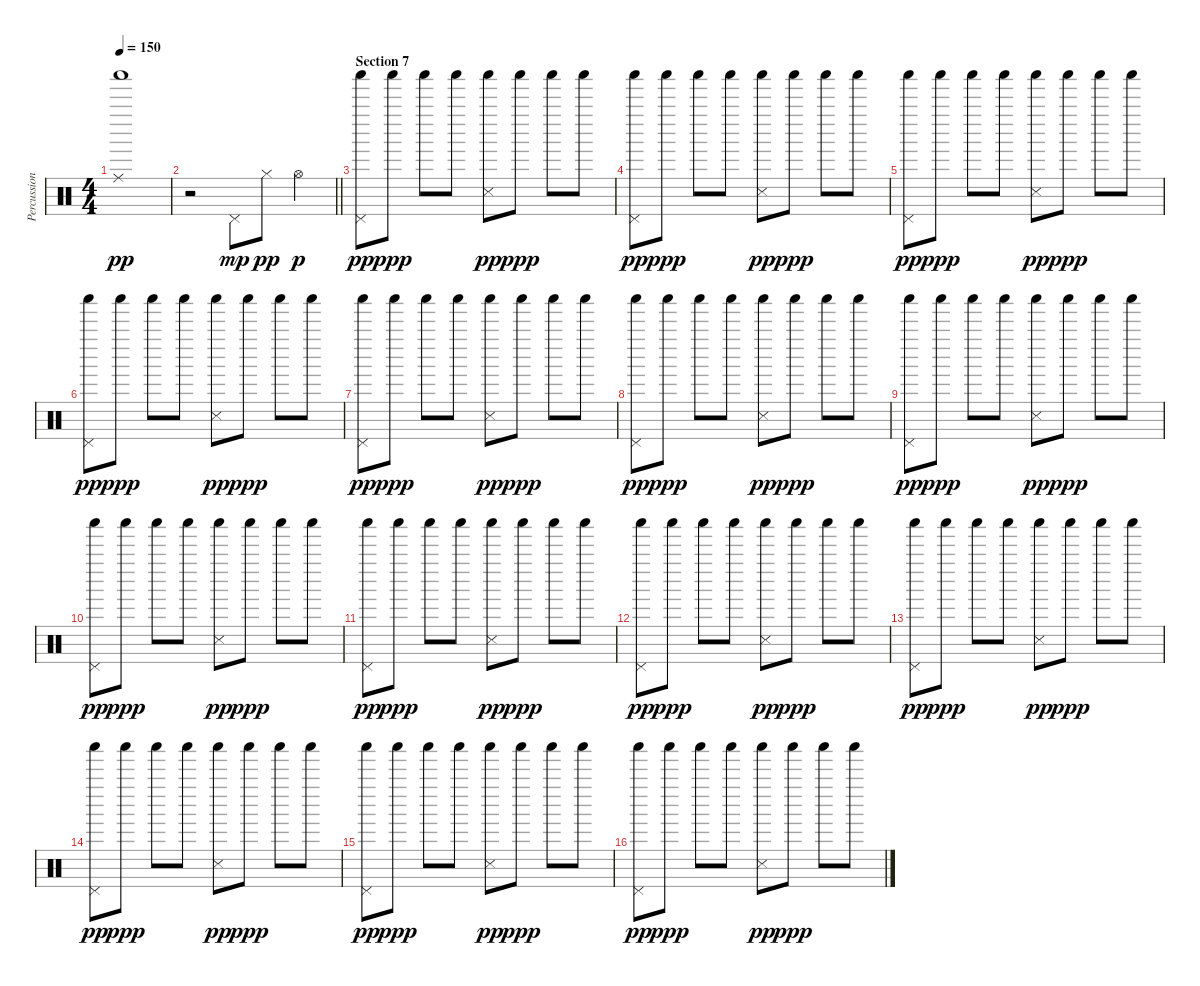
\track ("Percussion" "Percussion") {instrument percussion}
\staff {score}
\articulation defaults
\ts (4 4)
\tempo 150
\clef neutral
\ks c
("Ride (middle)" "Shaker (hit)").1{dy pp} |
\barLineRight lightlight
r.2 "Pedal Hi-Hat (hit)".8{dy mp} "Hi-Hat (closed)".8{dy pp} "Hi-Hat (open)".4{dy p} |
\section ("" "Section 7")
("Pedal Hi-Hat (hit)" "Shaker (hit)").8{dy pp} "Shaker (hit)".8{dy ppp} "Shaker (hit)".8 "Shaker (hit)".8 ("Snare (side stick) 3" "Shaker (hit)").8{dy pp} "Shaker (hit)".8{dy ppp} "Shaker (hit)".8 "Shaker (hit)".8 |
("Pedal Hi-Hat (hit)" "Shaker (hit)").8{dy pp} "Shaker (hit)".8{dy ppp} "Shaker (hit)".8 "Shaker (hit)".8 ("Snare (side stick) 3" "Shaker (hit)").8{dy pp} "Shaker (hit)".8{dy ppp} "Shaker (hit)".8 "Shaker (hit)".8 |
("Pedal Hi-Hat (hit)" "Shaker (hit)").8{dy pp} "Shaker (hit)".8{dy ppp} "Shaker (hit)".8 "Shaker (hit)".8 ("Snare (side stick) 3" "Shaker (hit)").8{dy pp} "Shaker (hit)".8{dy ppp} "Shaker (hit)".8 "Shaker (hit)".8 |
("Pedal Hi-Hat (hit)" "Shaker (hit)").8{dy pp} "Shaker (hit)".8{dy ppp} "Shaker (hit)".8 "Shaker (hit)".8 ("Snare (side stick) 3" "Shaker (hit)").8{dy pp} "Shaker (hit)".8{dy ppp} "Shaker (hit)".8 "Shaker (hit)".8 |
("Pedal Hi-Hat (hit)" "Shaker (hit)").8{dy pp} "Shaker (hit)".8{dy ppp} "Shaker (hit)".8 "Shaker (hit)".8 ("Snare (side stick) 3" "Shaker (hit)").8{dy pp} "Shaker (hit)".8{dy ppp} "Shaker (hit)".8 "Shaker (hit)".8 |
("Pedal Hi-Hat (hit)" "Shaker (hit)").8{dy pp} "Shaker (hit)".8{dy ppp} "Shaker (hit)".8 "Shaker (hit)".8 ("Snare (side stick) 3" "Shaker (hit)").8{dy pp} "Shaker (hit)".8{dy ppp} "Shaker (hit)".8 "Shaker (hit)".8 |
("Pedal Hi-Hat (hit)" "Shaker (hit)").8{dy pp} "Shaker (hit)".8{dy ppp} "Shaker (hit)".8 "Shaker (hit)".8 ("Snare (side stick) 3" "Shaker (hit)").8{dy pp} "Shaker (hit)".8{dy ppp} "Shaker (hit)".8 "Shaker (hit)".8 |
("Pedal Hi-Hat (hit)" "Shaker (hit)").8{dy pp} "Shaker (hit)".8{dy ppp} "Shaker (hit)".8 "Shaker (hit)".8 ("Snare (side stick) 3" "Shaker (hit)").8{dy pp} "Shaker (hit)".8{dy ppp} "Shaker (hit)".8 "Shaker (hit)".8 |
("Pedal Hi-Hat (hit)" "Shaker (hit)").8{dy pp} "Shaker (hit)".8{dy ppp} "Shaker (hit)".8 "Shaker (hit)".8 ("Snare (side stick) 3" "Shaker (hit)").8{dy pp} "Shaker (hit)".8{dy ppp} "Shaker (hit)".8 "Shaker (hit)".8 |
("Pedal Hi-Hat (hit)" "Shaker (hit)").8{dy pp} "Shaker (hit)".8{dy ppp} "Shaker (hit)".8 "Shaker (hit)".8 ("Snare (side stick) 3" "Shaker (hit)").8{dy pp} "Shaker (hit)".8{dy ppp} "Shaker (hit)".8 "Shaker (hit)".8 |
("Pedal Hi-Hat (hit)" "Shaker (hit)").8{dy pp} "Shaker (hit)".8{dy ppp} "Shaker (hit)".8 "Shaker (hit)".8 ("Snare (side stick) 3" "Shaker (hit)").8{dy pp} "Shaker (hit)".8{dy ppp} "Shaker (hit)".8 "Shaker (hit)".8 |
("Pedal Hi-Hat (hit)" "Shaker (hit)").8{dy pp} "Shaker (hit)".8{dy ppp} "Shaker (hit)".8 "Shaker (hit)".8 ("Snare (side stick) 3" "Shaker (hit)").8{dy pp} "Shaker (hit)".8{dy ppp} "Shaker (hit)".8 "Shaker (hit)".8 |
("Pedal Hi-Hat (hit)" "Shaker (hit)").8{dy pp} "Shaker (hit)".8{dy ppp} "Shaker (hit)".8 "Shaker (hit)".8 ("Snare (side stick) 3" "Shaker (hit)").8{dy pp} "Shaker (hit)".8{dy ppp} "Shaker (hit)".8 "Shaker (hit)".8 |
("Pedal Hi-Hat (hit)" "Shaker (hit)").8{dy pp} "Shaker (hit)".8{dy ppp} "Shaker (hit)".8 "Shaker (hit)".8 ("Snare (side stick) 3" "Shaker (hit)").8{dy pp} "Shaker (hit)".8{dy ppp} "Shaker (hit)".8 "Shaker (hit)".8
